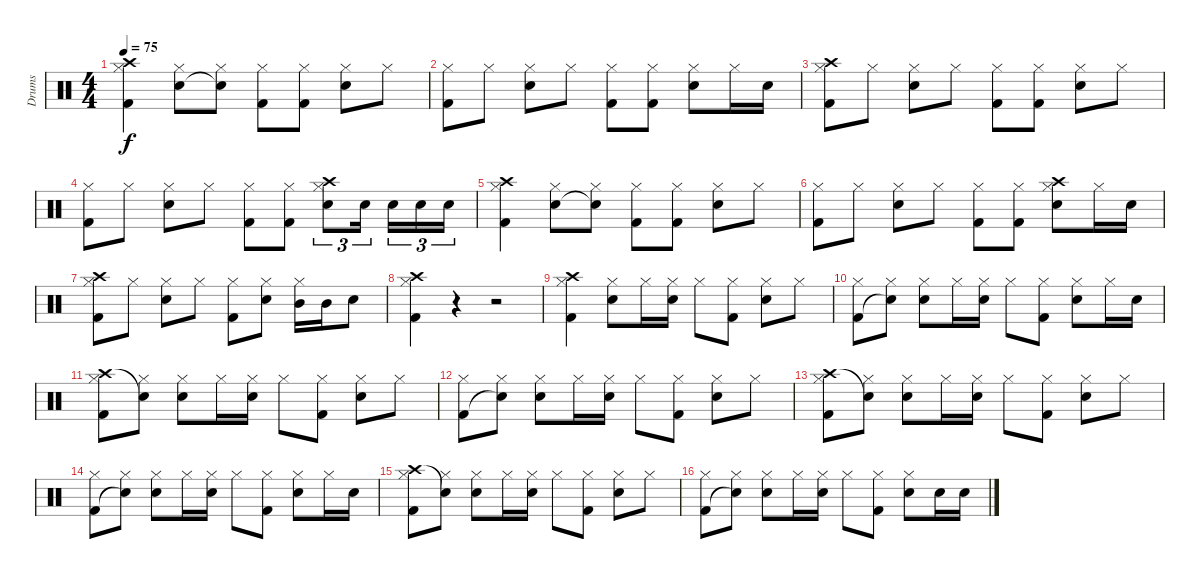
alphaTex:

\track ("Drums" "Drums") {instrument percussion}
\staff {score}
\articulation defaults
\ts (4 4)
\tempo 75
\clef neutral
\ks c
("Kick (hit) 2" "Crash high (hit)" "Hi-Hat (closed)").4{dy f} ("Hi-Hat (closed)" "Electric Snare (hit)").8 ("Hi-Hat (closed)" "Snare (hit)"{t}).8 ("Hi-Hat (closed)" "Kick (hit) 2").8 ("Hi-Hat (closed)" "Kick (hit) 2").8 ("Hi-Hat (closed)" "Electric Snare (hit)").8 "Hi-Hat (closed)".8 |
("Hi-Hat (closed)" "Kick (hit) 2").8 "Hi-Hat (closed)".8 ("Hi-Hat (closed)" "Electric Snare (hit)").8 "Hi-Hat (closed)".8 ("Hi-Hat (closed)" "Kick (hit) 2").8 ("Hi-Hat (closed)" "Kick (hit) 2").8 ("Hi-Hat (closed)" "Electric Snare (hit)").8 "Hi-Hat (closed)".16 "Electric Snare (hit)".16 |
("Kick (hit) 2" "Crash high (hit)" "Hi-Hat (closed)").8 "Hi-Hat (closed)".8 ("Electric Snare (hit)" "Hi-Hat (closed)").8 "Hi-Hat (closed)".8 ("Kick (hit) 2" "Hi-Hat (closed)").8 ("Kick (hit) 2" "Hi-Hat (closed)").8 ("Electric Snare (hit)" "Hi-Hat (closed)").8 "Hi-Hat (closed)".8 |
("Hi-Hat (closed)" "Kick (hit) 2").8 "Hi-Hat (closed)".8 ("Hi-Hat (closed)" "Electric Snare (hit)").8 "Hi-Hat (closed)".8 ("Hi-Hat (closed)" "Kick (hit) 2").8 ("Hi-Hat (closed)" "Kick (hit) 2").8 ("Hi-Hat (closed)" "Electric Snare (hit)" "Crash high (hit)").8{tu (3 2)} "Electric Snare (hit)".16{tu (3 2)} "Electric Snare (hit)".16{tu (3 2)} "Electric Snare (hit)".16{tu (3 2)} "Electric Snare (hit)".16{tu (3 2)} |
("Kick (hit) 2" "Crash high (hit)" "Hi-Hat (closed)").4 ("Hi-Hat (closed)" "Electric Snare (hit)").8 ("Hi-Hat (closed)" "Snare (hit)"{t}).8 ("Hi-Hat (closed)" "Kick (hit) 2").8 ("Hi-Hat (closed)" "Kick (hit) 2").8 ("Hi-Hat (closed)" "Electric Snare (hit)").8 "Hi-Hat (closed)".8 |
("Hi-Hat (closed)" "Kick (hit) 2").8 "Hi-Hat (closed)".8 ("Hi-Hat (closed)" "Electric Snare (hit)").8 "Hi-Hat (closed)".8 ("Hi-Hat (closed)" "Kick (hit) 2").8 ("Hi-Hat (closed)" "Kick (hit) 2").8 ("Hi-Hat (closed)" "Electric Snare (hit)" "Crash high (hit)").8 "Hi-Hat (closed)".16 "Electric Snare (hit)".16 |
("Hi-Hat (closed)" "Crash high (hit)" "Kick (hit) 2").8 "Hi-Hat (closed)".8 ("Hi-Hat (closed)" "Electric Snare (hit)").8 "Hi-Hat (closed)".8 ("Hi-Hat (closed)" "Kick (hit) 2").8 ("Hi-Hat (closed)" "Electric Snare (hit)").8 ("Mid Tom (hit)" "Hi-Hat (closed)").16 "Mid Tom (hit)".16 "Electric Snare (hit)".8 |
("Kick (hit) 2" "Crash high (hit)" "Hi-Hat (closed)").4 r.4 r.2 |
("Crash high (hit)" "Hi-Hat (closed)" "Kick (hit) 2").4 ("Hi-Hat (closed)" "Electric Snare (hit)").8 "Hi-Hat (closed)".16 ("Hi-Hat (closed)" "Electric Snare (hit)").16 "Hi-Hat (closed)".8 ("Hi-Hat (closed)" "Kick (hit) 2").8 ("Hi-Hat (closed)" "Electric Snare (hit)").8 "Hi-Hat (closed)".8 |
("Hi-Hat (closed)" "Kick (hit) 2").8 ("Hi-Hat (closed)" "Snare (hit)"{t}).8 ("Hi-Hat (closed)" "Electric Snare (hit)").8 "Hi-Hat (closed)".16 ("Hi-Hat (closed)" "Electric Snare (hit)").16 "Hi-Hat (closed)".8 ("Hi-Hat (closed)" "Kick (hit) 2").8 ("Hi-Hat (closed)" "Electric Snare (hit)").8 "Hi-Hat (closed)".16 "Electric Snare (hit)".16 |
("Hi-Hat (closed)" "Crash high (hit)" "Kick (hit) 2").8 ("Hi-Hat (closed)" "Snare (hit)"{t}).8 ("Hi-Hat (closed)" "Electric Snare (hit)").8 "Hi-Hat (closed)".16 ("Hi-Hat (closed)" "Electric Snare (hit)").16 "Hi-Hat (closed)".8 ("Hi-Hat (closed)" "Kick (hit) 2").8 ("Hi-Hat (closed)" "Electric Snare (hit)").8 "Hi-Hat (closed)".8 |
("Hi-Hat (closed)" "Kick (hit) 2").8 ("Hi-Hat (closed)" "Snare (hit)"{t}).8 ("Hi-Hat (closed)" "Electric Snare (hit)").8 "Hi-Hat (closed)".16 ("Hi-Hat (closed)" "Electric Snare (hit)").16 "Hi-Hat (closed)".8 ("Hi-Hat (closed)" "Kick (hit) 2").8 ("Hi-Hat (closed)" "Electric Snare (hit)").8 "Hi-Hat (closed)".8 |
("Hi-Hat (closed)" "Crash high (hit)" "Kick (hit) 2").8 ("Hi-Hat (closed)" "Snare (hit)"{t}).8 ("Hi-Hat (closed)" "Electric Snare (hit)").8 "Hi-Hat (closed)".16 ("Hi-Hat (closed)" "Electric Snare (hit)").16 "Hi-Hat (closed)".8 ("Hi-Hat (closed)" "Kick (hit) 2").8 ("Hi-Hat (closed)" "Electric Snare (hit)").8 "Hi-Hat (closed)".8 |
("Hi-Hat (closed)" "Kick (hit) 2").8 ("Hi-Hat (closed)" "Snare (hit)"{t}).8 ("Hi-Hat (closed)" "Electric Snare (hit)").8 "Hi-Hat (closed)".16 ("Hi-Hat (closed)" "Electric Snare (hit)").16 "Hi-Hat (closed)".8 ("Hi-Hat (closed)" "Kick (hit) 2").8 ("Hi-Hat (closed)" "Electric Snare (hit)").8 "Hi-Hat (closed)".16 "Electric Snare (hit)".16 |
("Hi-Hat (closed)" "Crash high (hit)" "Kick (hit) 2").8 ("Hi-Hat (closed)" "Snare (hit)"{t}).8 ("Hi-Hat (closed)" "Electric Snare (hit)").8 "Hi-Hat (closed)".16 ("Hi-Hat (closed)" "Electric Snare (hit)").16 "Hi-Hat (closed)".8 ("Hi-Hat (closed)" "Kick (hit) 2").8 ("Hi-Hat (closed)" "Electric Snare (hit)").8 "Hi-Hat (closed)".8 |
("Hi-Hat (closed)" "Kick (hit) 2").8 ("Hi-Hat (closed)" "Snare (hit)"{t}).8 ("Hi-Hat (closed)" "Electric Snare (hit)").8 "Hi-Hat (closed)".16 ("Hi-Hat (closed)" "Electric Snare (hit)").16 "Hi-Hat (closed)".8 ("Hi-Hat (closed)" "Kick (hit) 2").8 ("Hi-Hat (closed)" "Electric Snare (hit)").8 "Electric Snare (hit)".16 "Electric Snare (hit)".16
